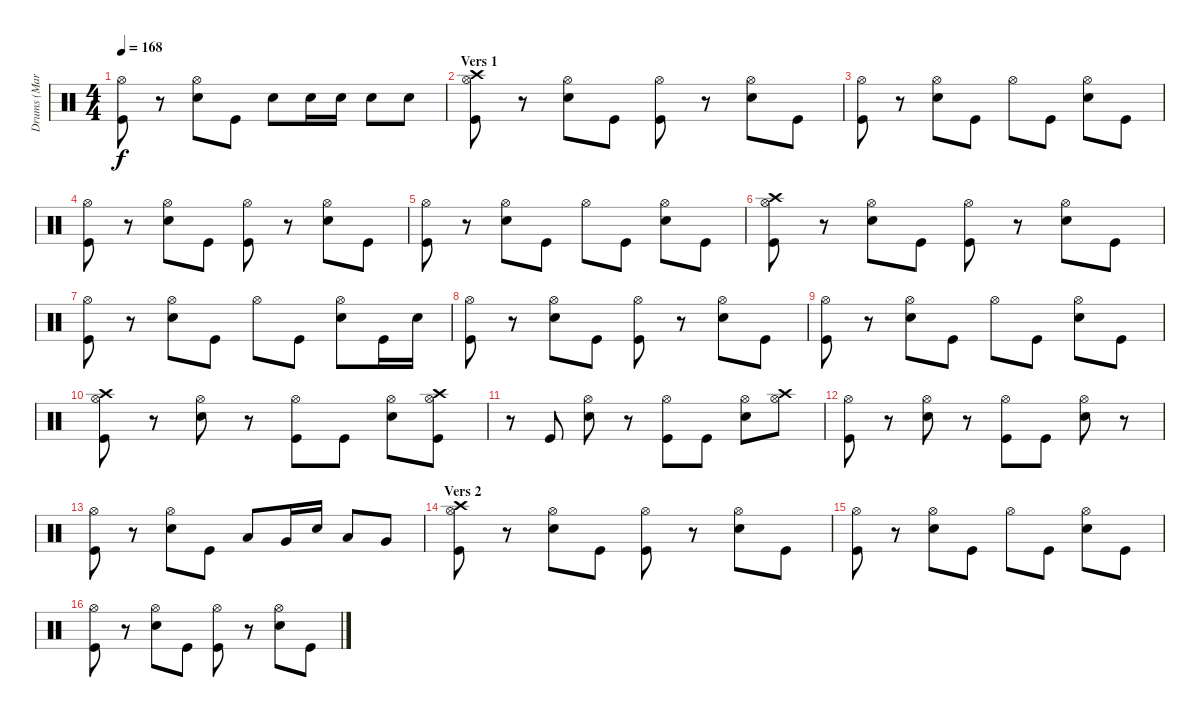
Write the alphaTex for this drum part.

\track ("Drums (Mark Michals)" "Drums (Mar") {instrument percussion}
\staff {score}
\articulation defaults
\ts (4 4)
\tempo 168
\clef neutral
\ks c
("Hi-Hat (open)" "Kick (hit)").8{dy f} r.8 ("Hi-Hat (open)" "Snare (hit) 2").8 "Kick (hit)".8 "Snare (hit) 2".8 "Snare (hit) 2".16 "Snare (hit) 2".16 "Snare (hit) 2".8 "Snare (hit) 2".8 |
\section ("" "Vers 1")
("Hi-Hat (open)" "Crash high (hit)" "Kick (hit)").8 r.8 ("Hi-Hat (open)" "Snare (hit) 2").8 "Kick (hit)".8 ("Hi-Hat (open)" "Kick (hit)").8 r.8 ("Hi-Hat (open)" "Snare (hit) 2").8 "Kick (hit)".8 |
("Hi-Hat (open)" "Kick (hit)").8 r.8 ("Hi-Hat (open)" "Snare (hit) 2").8 "Kick (hit)".8 "Hi-Hat (open)".8 "Kick (hit)".8 ("Hi-Hat (open)" "Snare (hit) 2").8 "Kick (hit)".8 |
("Hi-Hat (open)" "Kick (hit)").8 r.8 ("Hi-Hat (open)" "Snare (hit) 2").8 "Kick (hit)".8 ("Hi-Hat (open)" "Kick (hit)").8 r.8 ("Hi-Hat (open)" "Snare (hit) 2").8 "Kick (hit)".8 |
("Hi-Hat (open)" "Kick (hit)").8 r.8 ("Hi-Hat (open)" "Snare (hit) 2").8 "Kick (hit)".8 "Hi-Hat (open)".8 "Kick (hit)".8 ("Hi-Hat (open)" "Snare (hit) 2").8 "Kick (hit)".8 |
("Hi-Hat (open)" "Crash high (hit)" "Kick (hit)").8 r.8 ("Hi-Hat (open)" "Snare (hit) 2").8 "Kick (hit)".8 ("Hi-Hat (open)" "Kick (hit)").8 r.8 ("Hi-Hat (open)" "Snare (hit) 2").8 "Kick (hit)".8 |
("Hi-Hat (open)" "Kick (hit)").8 r.8 ("Hi-Hat (open)" "Snare (hit) 2").8 "Kick (hit)".8 "Hi-Hat (open)".8 "Kick (hit)".8 ("Hi-Hat (open)" "Snare (hit) 2").8 "Kick (hit)".16 "Snare (hit) 2".16 |
("Hi-Hat (open)" "Kick (hit)").8 r.8 ("Hi-Hat (open)" "Snare (hit) 2").8 "Kick (hit)".8 ("Hi-Hat (open)" "Kick (hit)").8 r.8 ("Hi-Hat (open)" "Snare (hit) 2").8 "Kick (hit)".8 |
("Hi-Hat (open)" "Kick (hit)").8 r.8 ("Hi-Hat (open)" "Snare (hit) 2").8 "Kick (hit)".8 "Hi-Hat (open)".8 "Kick (hit)".8 ("Hi-Hat (open)" "Snare (hit) 2").8 "Kick (hit)".8 |
("Hi-Hat (open)" "Crash high (hit)" "Kick (hit)").8 r.8 ("Hi-Hat (open)" "Snare (hit) 2").8 r.8 ("Hi-Hat (open)" "Kick (hit)").8 "Kick (hit)".8 ("Hi-Hat (open)" "Snare (hit) 2").8 ("Hi-Hat (open)" "Crash high (hit)" "Kick (hit)").8 |
r.8 "Kick (hit)".8 ("Hi-Hat (open)" "Snare (hit) 2").8 r.8 ("Hi-Hat (open)" "Kick (hit)").8 "Kick (hit)".8 ("Hi-Hat (open)" "Snare (hit) 2").8 ("Hi-Hat (open)" "Crash high (hit)").8 |
("Hi-Hat (open)" "Kick (hit)").8 r.8 ("Hi-Hat (open)" "Snare (hit) 2").8 r.8 ("Hi-Hat (open)" "Kick (hit)").8 "Kick (hit)".8 ("Hi-Hat (open)" "Snare (hit) 2").8 r.8 |
("Hi-Hat (open)" "Kick (hit)").8 r.8 ("Hi-Hat (open)" "Snare (hit) 2").8 "Kick (hit)".8 "Low Tom (hit)".8 "Very Low Tom (hit)".16 "Snare (hit) 2".16 "Low Tom (hit)".8 "Very Low Tom (hit)".8 |
\section ("" "Vers 2")
("Hi-Hat (open)" "Crash high (hit)" "Kick (hit)").8 r.8 ("Hi-Hat (open)" "Snare (hit) 2").8 "Kick (hit)".8 ("Hi-Hat (open)" "Kick (hit)").8 r.8 ("Hi-Hat (open)" "Snare (hit) 2").8 "Kick (hit)".8 |
("Hi-Hat (open)" "Kick (hit)").8 r.8 ("Hi-Hat (open)" "Snare (hit) 2").8 "Kick (hit)".8 "Hi-Hat (open)".8 "Kick (hit)".8 ("Hi-Hat (open)" "Snare (hit) 2").8 "Kick (hit)".8 |
("Hi-Hat (open)" "Kick (hit)").8 r.8 ("Hi-Hat (open)" "Snare (hit) 2").8 "Kick (hit)".8 ("Hi-Hat (open)" "Kick (hit)").8 r.8 ("Hi-Hat (open)" "Snare (hit) 2").8 "Kick (hit)".8
